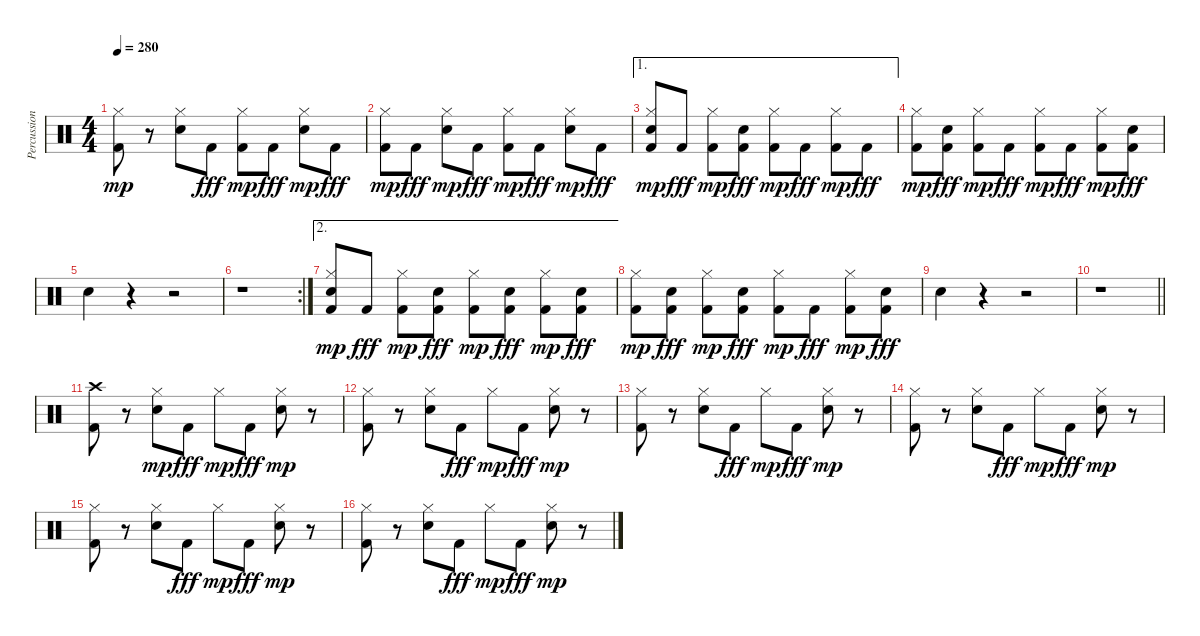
\track ("Percussion" "Percussion") {instrument percussion}
\staff {score}
\articulation defaults
\ts (4 4)
\tempo 280
\clef neutral
\ks c
("Kick (hit) 2" "Hi-Hat (closed)").8{dy mp} r.8 ("Electric Snare (hit)" "Hi-Hat (closed)").8 "Kick (hit) 2".8{dy fff} ("Kick (hit) 2" "Hi-Hat (closed)").8{dy mp} "Kick (hit) 2".8{dy fff} ("Electric Snare (hit)" "Hi-Hat (closed)").8{dy mp} "Kick (hit) 2".8{dy fff} |
("Kick (hit) 2" "Hi-Hat (closed)").8{dy mp} "Kick (hit) 2".8{dy fff} ("Electric Snare (hit)" "Hi-Hat (closed)").8{dy mp} "Kick (hit) 2".8{dy fff} ("Kick (hit) 2" "Hi-Hat (closed)").8{dy mp} "Kick (hit) 2".8{dy fff} ("Electric Snare (hit)" "Hi-Hat (closed)").8{dy mp} "Kick (hit) 2".8{dy fff} |
\ae 1
("Kick (hit) 2" "Electric Snare (hit)" "Hi-Hat (closed)").8{dy mp} "Kick (hit) 2".8{dy fff} ("Kick (hit) 2" "Hi-Hat (closed)").8{dy mp} ("Kick (hit) 2" "Electric Snare (hit)").8{dy fff} ("Kick (hit) 2" "Hi-Hat (closed)").8{dy mp} "Kick (hit) 2".8{dy fff} ("Kick (hit) 2" "Hi-Hat (closed)").8{dy mp} "Kick (hit) 2".8{dy fff} |
("Kick (hit) 2" "Hi-Hat (closed)").8{dy mp} ("Kick (hit) 2" "Electric Snare (hit)").8{dy fff} ("Kick (hit) 2" "Hi-Hat (closed)").8{dy mp} "Kick (hit) 2".8{dy fff} ("Kick (hit) 2" "Hi-Hat (closed)").8{dy mp} "Kick (hit) 2".8{dy fff} ("Kick (hit) 2" "Hi-Hat (closed)").8{dy mp} ("Kick (hit) 2" "Electric Snare (hit)").8{dy fff} |
"Electric Snare (hit)".4 r.4 r.2 |
\rc 2
r.1 |
\ae 2
("Kick (hit) 2" "Electric Snare (hit)" "Hi-Hat (closed)").8{dy mp} "Kick (hit) 2".8{dy fff} ("Kick (hit) 2" "Hi-Hat (closed)").8{dy mp} ("Kick (hit) 2" "Electric Snare (hit)").8{dy fff} ("Kick (hit) 2" "Hi-Hat (closed)").8{dy mp} ("Kick (hit) 2" "Electric Snare (hit)").8{dy fff} ("Kick (hit) 2" "Hi-Hat (closed)").8{dy mp} ("Kick (hit) 2" "Electric Snare (hit)").8{dy fff} |
("Kick (hit) 2" "Hi-Hat (closed)").8{dy mp} ("Kick (hit) 2" "Electric Snare (hit)").8{dy fff} ("Kick (hit) 2" "Hi-Hat (closed)").8{dy mp} ("Kick (hit) 2" "Electric Snare (hit)").8{dy fff} ("Kick (hit) 2" "Hi-Hat (closed)").8{dy mp} "Kick (hit) 2".8{dy fff} ("Kick (hit) 2" "Hi-Hat (closed)").8{dy mp} ("Kick (hit) 2" "Electric Snare (hit)").8{dy fff} |
"Electric Snare (hit)".4 r.4 r.2 |
\barLineRight lightlight
r.1 |
("Kick (hit) 2" "Crash high (hit)").8 r.8 ("Electric Snare (hit)" "Hi-Hat (closed)").8{dy mp} "Kick (hit) 2".8{dy fff} "Hi-Hat (closed)".8{dy mp} "Kick (hit) 2".8{dy fff} ("Electric Snare (hit)" "Hi-Hat (closed)").8{dy mp} r.8 |
("Kick (hit) 2" "Hi-Hat (closed)").8 r.8 ("Electric Snare (hit)" "Hi-Hat (closed)").8 "Kick (hit) 2".8{dy fff} "Hi-Hat (closed)".8{dy mp} "Kick (hit) 2".8{dy fff} ("Electric Snare (hit)" "Hi-Hat (closed)").8{dy mp} r.8 |
("Kick (hit) 2" "Hi-Hat (closed)").8 r.8 ("Electric Snare (hit)" "Hi-Hat (closed)").8 "Kick (hit) 2".8{dy fff} "Hi-Hat (closed)".8{dy mp} "Kick (hit) 2".8{dy fff} ("Electric Snare (hit)" "Hi-Hat (closed)").8{dy mp} r.8 |
("Kick (hit) 2" "Hi-Hat (closed)").8 r.8 ("Electric Snare (hit)" "Hi-Hat (closed)").8 "Kick (hit) 2".8{dy fff} "Hi-Hat (closed)".8{dy mp} "Kick (hit) 2".8{dy fff} ("Electric Snare (hit)" "Hi-Hat (closed)").8{dy mp} r.8 |
("Kick (hit) 2" "Hi-Hat (closed)").8 r.8 ("Electric Snare (hit)" "Hi-Hat (closed)").8 "Kick (hit) 2".8{dy fff} "Hi-Hat (closed)".8{dy mp} "Kick (hit) 2".8{dy fff} ("Electric Snare (hit)" "Hi-Hat (closed)").8{dy mp} r.8 |
("Kick (hit) 2" "Hi-Hat (closed)").8 r.8 ("Electric Snare (hit)" "Hi-Hat (closed)").8 "Kick (hit) 2".8{dy fff} "Hi-Hat (closed)".8{dy mp} "Kick (hit) 2".8{dy fff} ("Electric Snare (hit)" "Hi-Hat (closed)").8{dy mp} r.8
